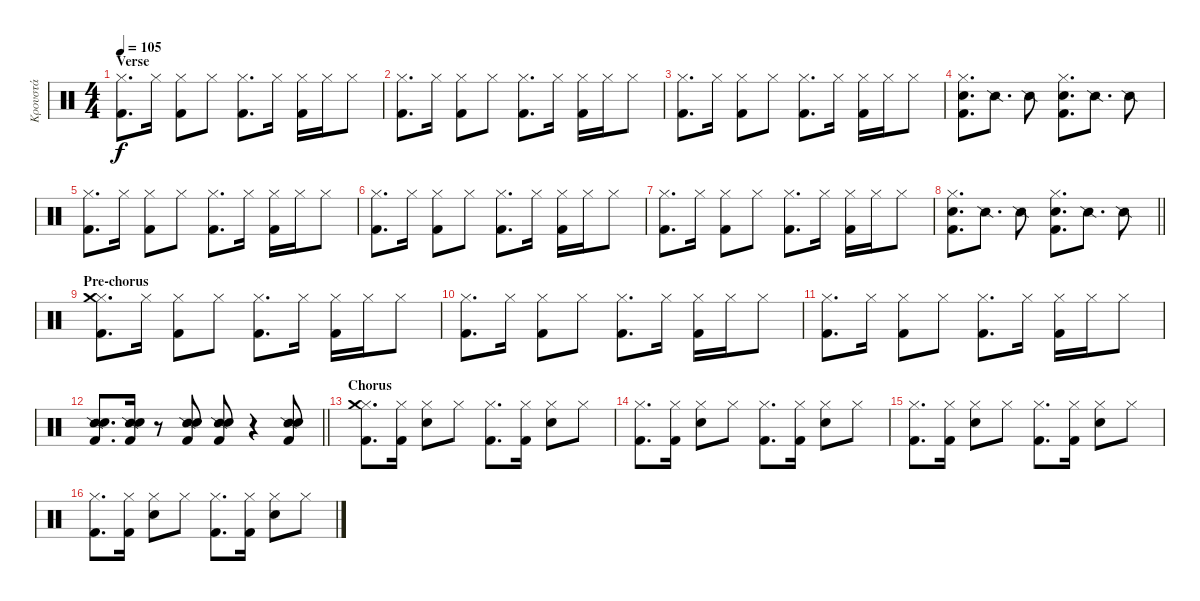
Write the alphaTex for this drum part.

\track ("Κρουστά" "Κρουστά") {instrument percussion}
\staff {score}
\articulation defaults
\ts (4 4)
\section ("" "Verse")
\tempo 105
\clef neutral
\ks c
("Hi-Hat (closed)" "Kick (hit) 2").8{d dy f} "Hi-Hat (closed)".16 ("Hi-Hat (closed)" "Kick (hit) 2").8 "Hi-Hat (closed)".8 ("Hi-Hat (closed)" "Kick (hit) 2").8{d} "Hi-Hat (closed)".16 ("Hi-Hat (closed)" "Kick (hit) 2").16 "Hi-Hat (closed)".16 "Hi-Hat (closed)".8 |
("Hi-Hat (closed)" "Kick (hit) 2").8{d} "Hi-Hat (closed)".16 ("Hi-Hat (closed)" "Kick (hit) 2").8 "Hi-Hat (closed)".8 ("Hi-Hat (closed)" "Kick (hit) 2").8{d} "Hi-Hat (closed)".16 ("Hi-Hat (closed)" "Kick (hit) 2").16 "Hi-Hat (closed)".16 "Hi-Hat (closed)".8 |
("Hi-Hat (closed)" "Kick (hit) 2").8{d} "Hi-Hat (closed)".16 ("Hi-Hat (closed)" "Kick (hit) 2").8 "Hi-Hat (closed)".8 ("Hi-Hat (closed)" "Kick (hit) 2").8{d} "Hi-Hat (closed)".16 ("Hi-Hat (closed)" "Kick (hit) 2").16 "Hi-Hat (closed)".16 "Hi-Hat (closed)".8 |
("Kick (hit) 2" "Hi-Hat (closed)" "Electric Snare (hit)").8{d} "Snare (side stick) 2".8{d} "Snare (side stick) 2".8 ("Kick (hit) 2" "Hi-Hat (closed)" "Electric Snare (hit)").8{d} "Snare (side stick) 2".8{d} "Snare (side stick) 2".8 |
("Hi-Hat (closed)" "Kick (hit) 2").8{d} "Hi-Hat (closed)".16 ("Hi-Hat (closed)" "Kick (hit) 2").8 "Hi-Hat (closed)".8 ("Hi-Hat (closed)" "Kick (hit) 2").8{d} "Hi-Hat (closed)".16 ("Hi-Hat (closed)" "Kick (hit) 2").16 "Hi-Hat (closed)".16 "Hi-Hat (closed)".8 |
("Hi-Hat (closed)" "Kick (hit) 2").8{d} "Hi-Hat (closed)".16 ("Hi-Hat (closed)" "Kick (hit) 2").8 "Hi-Hat (closed)".8 ("Hi-Hat (closed)" "Kick (hit) 2").8{d} "Hi-Hat (closed)".16 ("Hi-Hat (closed)" "Kick (hit) 2").16 "Hi-Hat (closed)".16 "Hi-Hat (closed)".8 |
("Hi-Hat (closed)" "Kick (hit) 2").8{d} "Hi-Hat (closed)".16 ("Hi-Hat (closed)" "Kick (hit) 2").8 "Hi-Hat (closed)".8 ("Hi-Hat (closed)" "Kick (hit) 2").8{d} "Hi-Hat (closed)".16 ("Hi-Hat (closed)" "Kick (hit) 2").16 "Hi-Hat (closed)".16 "Hi-Hat (closed)".8 |
\barLineRight lightlight
("Kick (hit) 2" "Hi-Hat (closed)" "Electric Snare (hit)").8{d} "Snare (side stick) 2".8{d} "Snare (side stick) 2".8 ("Kick (hit) 2" "Hi-Hat (closed)" "Electric Snare (hit)").8{d} "Snare (side stick) 2".8{d} "Snare (side stick) 2".8 |
\section ("" "Pre-chorus")
("Hi-Hat (closed)" "Kick (hit) 2" "Crash medium (hit)").8{d} "Hi-Hat (closed)".16 ("Hi-Hat (closed)" "Kick (hit) 2").8 "Hi-Hat (closed)".8 ("Hi-Hat (closed)" "Kick (hit) 2").8{d} "Hi-Hat (closed)".16 ("Hi-Hat (closed)" "Kick (hit) 2").16 "Hi-Hat (closed)".16 "Hi-Hat (closed)".8 |
("Hi-Hat (closed)" "Kick (hit) 2").8{d} "Hi-Hat (closed)".16 ("Hi-Hat (closed)" "Kick (hit) 2").8 "Hi-Hat (closed)".8 ("Hi-Hat (closed)" "Kick (hit) 2").8{d} "Hi-Hat (closed)".16 ("Hi-Hat (closed)" "Kick (hit) 2").16 "Hi-Hat (closed)".16 "Hi-Hat (closed)".8 |
("Hi-Hat (closed)" "Kick (hit) 2").8{d} "Hi-Hat (closed)".16 ("Hi-Hat (closed)" "Kick (hit) 2").8 "Hi-Hat (closed)".8 ("Hi-Hat (closed)" "Kick (hit) 2").8{d} "Hi-Hat (closed)".16 ("Hi-Hat (closed)" "Kick (hit) 2").16 "Hi-Hat (closed)".16 "Hi-Hat (closed)".8 |
\barLineRight lightlight
("Kick (hit) 2" "Snare (side stick) 2" "Electric Snare (hit)").8{d} ("Kick (hit) 2" "Snare (side stick) 2" "Electric Snare (hit)").16 r.8 ("Kick (hit) 2" "Snare (side stick) 2" "Electric Snare (hit)").8 ("Kick (hit) 2" "Snare (side stick) 2" "Electric Snare (hit)").8 r.4 ("Kick (hit) 2" "Snare (side stick) 2" "Electric Snare (hit)").8 |
\section ("" "Chorus")
("Hi-Hat (closed)" "Kick (hit) 2" "Crash medium (hit)").8{d} ("Hi-Hat (closed)" "Kick (hit) 2").16 ("Hi-Hat (closed)" "Electric Snare (hit)").8 "Hi-Hat (closed)".8 ("Hi-Hat (closed)" "Kick (hit) 2").8{d} ("Hi-Hat (closed)" "Kick (hit) 2").16 ("Hi-Hat (closed)" "Electric Snare (hit)").8 "Hi-Hat (closed)".8 |
("Hi-Hat (closed)" "Kick (hit) 2").8{d} ("Hi-Hat (closed)" "Kick (hit) 2").16 ("Hi-Hat (closed)" "Electric Snare (hit)").8 "Hi-Hat (closed)".8 ("Hi-Hat (closed)" "Kick (hit) 2").8{d} ("Hi-Hat (closed)" "Kick (hit) 2").16 ("Hi-Hat (closed)" "Electric Snare (hit)").8 "Hi-Hat (closed)".8 |
("Hi-Hat (closed)" "Kick (hit) 2").8{d} ("Hi-Hat (closed)" "Kick (hit) 2").16 ("Hi-Hat (closed)" "Electric Snare (hit)").8 "Hi-Hat (closed)".8 ("Hi-Hat (closed)" "Kick (hit) 2").8{d} ("Hi-Hat (closed)" "Kick (hit) 2").16 ("Hi-Hat (closed)" "Electric Snare (hit)").8 "Hi-Hat (closed)".8 |
("Hi-Hat (closed)" "Kick (hit) 2").8{d} ("Hi-Hat (closed)" "Kick (hit) 2").16 ("Hi-Hat (closed)" "Electric Snare (hit)").8 "Hi-Hat (closed)".8 ("Hi-Hat (closed)" "Kick (hit) 2").8{d} ("Hi-Hat (closed)" "Kick (hit) 2").16 ("Hi-Hat (closed)" "Electric Snare (hit)").8 "Hi-Hat (closed)".8
